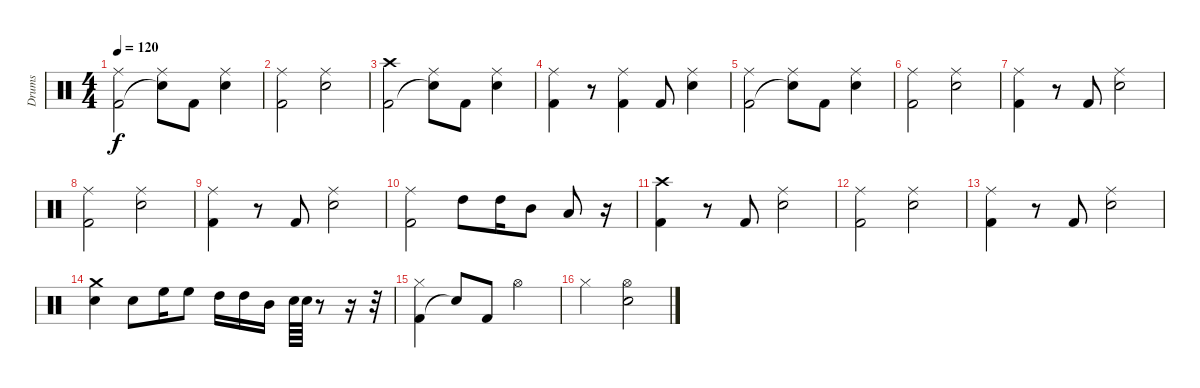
\track ("Drums" "Drums") {instrument percussion}
\staff {score}
\articulation defaults
\ts (4 4)
\tempo 120
\clef neutral
\ks c
("Kick (hit) 2" "Ride (middle)").2{dy f} ("Snare (hit)"{t} "Ride (middle)").8 "Kick (hit) 2".8 ("Electric Snare (hit)" "Ride (middle)").4 |
("Kick (hit) 2" "Ride (middle)").2 ("Electric Snare (hit)" "Ride (middle)").2 |
("Kick (hit) 2" "Crash high (hit)").2 ("Snare (hit)"{t} "Ride (middle)").8 "Kick (hit) 2".8 ("Electric Snare (hit)" "Ride (middle)").4 |
("Kick (hit) 2" "Ride (middle)").4 r.8 ("Kick (hit) 2" "Ride (middle)").4 "Kick (hit) 2".8 ("Electric Snare (hit)" "Ride (middle)").4 |
("Kick (hit) 2" "Ride (middle)").2 ("Snare (hit)"{t} "Ride (middle)").8 "Kick (hit) 2".8 ("Electric Snare (hit)" "Ride (middle)").4 |
("Kick (hit) 2" "Ride (middle)").2 ("Electric Snare (hit)" "Ride (middle)").2 |
("Kick (hit) 2" "Ride (middle)").4 r.8 "Kick (hit) 2".8 ("Electric Snare (hit)" "Ride (middle)").2 |
("Kick (hit) 2" "Ride (middle)").2 ("Electric Snare (hit)" "Ride (middle)").2 |
("Kick (hit) 2" "Ride (middle)").4 r.8 "Kick (hit) 2".8 ("Electric Snare (hit)" "Ride (middle)").2 |
("Kick (hit) 2" "Ride (middle)").2 "High Tom (hit)".8 "High Tom (hit)".16 "Mid Tom (hit)".8 "Low Tom (hit)".8 r.16 |
("Kick (hit) 2" "Crash high (hit)").4 r.8 "Kick (hit) 2".8 ("Electric Snare (hit)" "Ride (middle)").2 |
("Kick (hit) 2" "Ride (middle)").2 ("Electric Snare (hit)" "Ride (middle)").2 |
("Kick (hit) 2" "Ride (middle)").4 r.8 "Kick (hit) 2".8 ("Electric Snare (hit)" "Ride (middle)").2 |
("Electric Snare (hit)" "Crash medium (hit)").4 "Electric Snare (hit)".8 "High Floor Tom (hit)".16 "High Floor Tom (hit)".8 "High Tom (hit)".16 "High Tom (hit)".16 "Mid Tom (hit)".16 "Electric Snare (hit)".64 "Electric Snare (hit)".64 r.8 r.16 r.32 |
("Kick (hit) 2" "Hi-Hat (closed)").4 "Snare (hit)"{t}.8 "Kick (hit) 2".8 "Hi-Hat (open)".2 |
"Hi-Hat (closed)".2 ("Electric Snare (hit)" "Hi-Hat (open)").2
